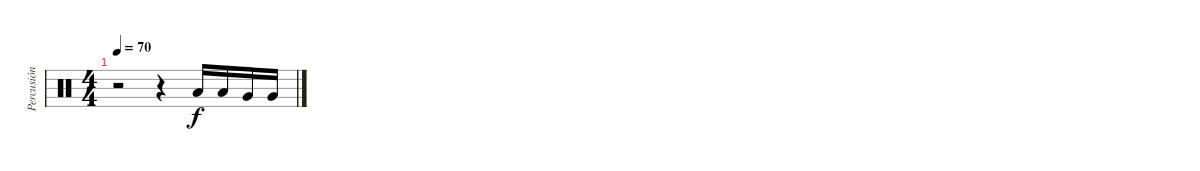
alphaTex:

\track ("Percusión" "Percusión") {instrument percussion}
\staff {score}
\articulation defaults
\ts (4 4)
\tempo 70
\clef neutral
\ks c
r.2{dy f} r.4 "Low Tom (hit)".16 "Low Tom (hit)".16 "Very Low Tom (hit)".16 "Very Low Tom (hit)".16
